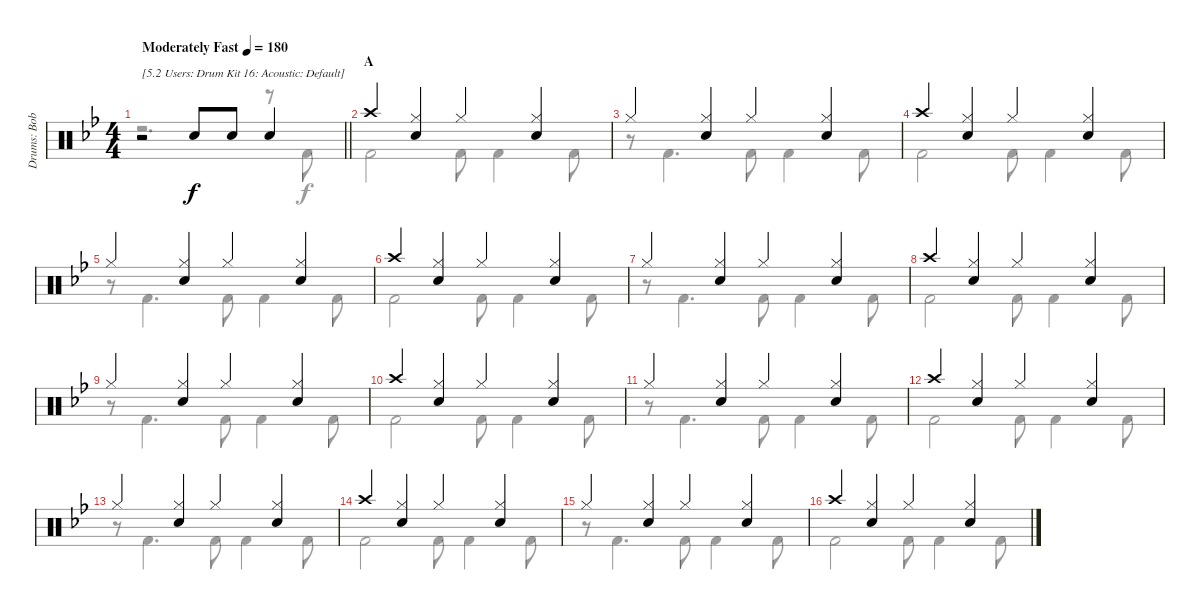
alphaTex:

\track ("Drums: Bobby" "Drums: Bob") {instrument percussion}
\staff {score}
\articulation defaults
\voice
\ts (4 4)
\tempo (180 "Moderately Fast")
\clef neutral
\barLineRight lightlight
\ks bb
r.2{txt "[5.2 Users: Drum Kit 16: Acoustic: Default]" dy f} "Snare (hit) 2".8 "Snare (hit) 2".8 "Snare (hit) 2".4 |
\section ("" "A")
"Crash high (hit)".4 ("Hi-Hat (closed)" "Snare (hit) 2").4 "Hi-Hat (closed)".4 ("Hi-Hat (closed)" "Snare (hit) 2").4 |
"Hi-Hat (closed)".4 ("Hi-Hat (closed)" "Snare (hit) 2").4 "Hi-Hat (closed)".4 ("Hi-Hat (closed)" "Snare (hit) 2").4 |
"Crash high (hit)".4 ("Hi-Hat (closed)" "Snare (hit) 2").4 "Hi-Hat (closed)".4 ("Hi-Hat (closed)" "Snare (hit) 2").4 |
"Hi-Hat (closed)".4 ("Hi-Hat (closed)" "Snare (hit) 2").4 "Hi-Hat (closed)".4 ("Hi-Hat (closed)" "Snare (hit) 2").4 |
"Crash high (hit)".4 ("Hi-Hat (closed)" "Snare (hit) 2").4 "Hi-Hat (closed)".4 ("Hi-Hat (closed)" "Snare (hit) 2").4 |
"Hi-Hat (closed)".4 ("Hi-Hat (closed)" "Snare (hit) 2").4 "Hi-Hat (closed)".4 ("Hi-Hat (closed)" "Snare (hit) 2").4 |
"Crash high (hit)".4 ("Hi-Hat (closed)" "Snare (hit) 2").4 "Hi-Hat (closed)".4 ("Hi-Hat (closed)" "Snare (hit) 2").4 |
"Hi-Hat (closed)".4 ("Hi-Hat (closed)" "Snare (hit) 2").4 "Hi-Hat (closed)".4 ("Hi-Hat (closed)" "Snare (hit) 2").4 |
"Crash high (hit)".4 ("Hi-Hat (closed)" "Snare (hit) 2").4 "Hi-Hat (closed)".4 ("Hi-Hat (closed)" "Snare (hit) 2").4 |
"Hi-Hat (closed)".4 ("Hi-Hat (closed)" "Snare (hit) 2").4 "Hi-Hat (closed)".4 ("Hi-Hat (closed)" "Snare (hit) 2").4 |
"Crash high (hit)".4 ("Hi-Hat (closed)" "Snare (hit) 2").4 "Hi-Hat (closed)".4 ("Hi-Hat (closed)" "Snare (hit) 2").4 |
"Hi-Hat (closed)".4 ("Hi-Hat (closed)" "Snare (hit) 2").4 "Hi-Hat (closed)".4 ("Hi-Hat (closed)" "Snare (hit) 2").4 |
"Crash high (hit)".4 ("Hi-Hat (closed)" "Snare (hit) 2").4 "Hi-Hat (closed)".4 ("Hi-Hat (closed)" "Snare (hit) 2").4 |
"Hi-Hat (closed)".4 ("Hi-Hat (closed)" "Snare (hit) 2").4 "Hi-Hat (closed)".4 ("Hi-Hat (closed)" "Snare (hit) 2").4 |
"Crash high (hit)".4 ("Hi-Hat (closed)" "Snare (hit) 2").4 "Hi-Hat (closed)".4 ("Hi-Hat (closed)" "Snare (hit) 2").4
\voice
\clef neutral
\ottava regular
\simile none
\barLineRight lightlight
\ks bb
r.2{d dy f} r.8 "Kick (hit) 2".8 |
"Kick (hit) 2".2 "Kick (hit) 2".8 "Kick (hit) 2".4 "Kick (hit) 2".8 |
r.8 "Kick (hit) 2".4{d} "Kick (hit) 2".8 "Kick (hit) 2".4 "Kick (hit) 2".8 |
"Kick (hit) 2".2 "Kick (hit) 2".8 "Kick (hit) 2".4 "Kick (hit) 2".8 |
r.8 "Kick (hit) 2".4{d} "Kick (hit) 2".8 "Kick (hit) 2".4 "Kick (hit) 2".8 |
"Kick (hit) 2".2 "Kick (hit) 2".8 "Kick (hit) 2".4 "Kick (hit) 2".8 |
r.8 "Kick (hit) 2".4{d} "Kick (hit) 2".8 "Kick (hit) 2".4 "Kick (hit) 2".8 |
"Kick (hit) 2".2 "Kick (hit) 2".8 "Kick (hit) 2".4 "Kick (hit) 2".8 |
r.8 "Kick (hit) 2".4{d} "Kick (hit) 2".8 "Kick (hit) 2".4 "Kick (hit) 2".8 |
"Kick (hit) 2".2 "Kick (hit) 2".8 "Kick (hit) 2".4 "Kick (hit) 2".8 |
r.8 "Kick (hit) 2".4{d} "Kick (hit) 2".8 "Kick (hit) 2".4 "Kick (hit) 2".8 |
"Kick (hit) 2".2 "Kick (hit) 2".8 "Kick (hit) 2".4 "Kick (hit) 2".8 |
r.8 "Kick (hit) 2".4{d} "Kick (hit) 2".8 "Kick (hit) 2".4 "Kick (hit) 2".8 |
"Kick (hit) 2".2 "Kick (hit) 2".8 "Kick (hit) 2".4 "Kick (hit) 2".8 |
r.8 "Kick (hit) 2".4{d} "Kick (hit) 2".8 "Kick (hit) 2".4 "Kick (hit) 2".8 |
"Kick (hit) 2".2 "Kick (hit) 2".8 "Kick (hit) 2".4 "Kick (hit) 2".8
